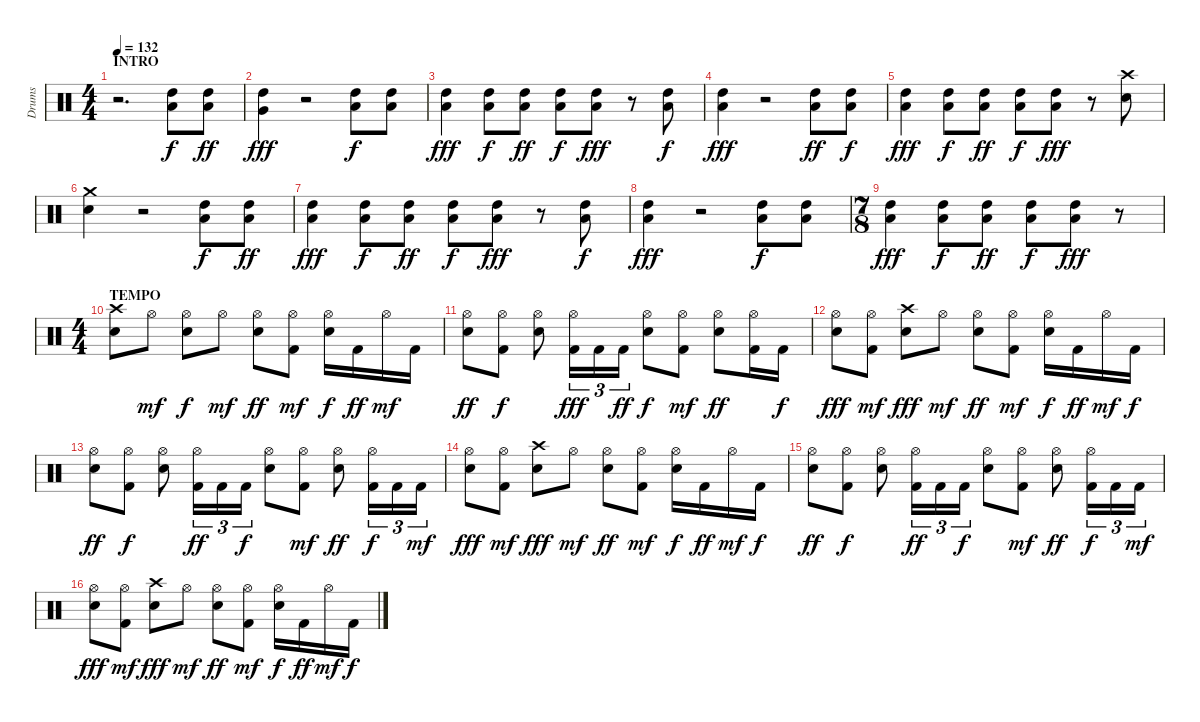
\track ("Drums" "Drums") {instrument percussion}
\staff {score}
\articulation defaults
\ts (4 4)
\section ("" "INTRO")
\tempo 132
\clef neutral
\ks c
r.2{d dy f} ("High Tom (hit)" "Low Floor Tom (hit)").8 ("High Tom (hit)" "Low Floor Tom (hit)").8{dy ff} |
("High Tom (hit)" "Very Low Tom (hit)").4{dy fff} r.2 ("High Tom (hit)" "Low Floor Tom (hit)").8{dy f} ("High Tom (hit)" "Low Floor Tom (hit)").8 |
("High Tom (hit)" "Low Floor Tom (hit)").4{dy fff} ("High Tom (hit)" "Low Floor Tom (hit)").8{dy f} ("High Tom (hit)" "Low Floor Tom (hit)").8{dy ff} ("High Tom (hit)" "Low Floor Tom (hit)").8{dy f} ("High Tom (hit)" "Low Floor Tom (hit)").8{dy fff} r.8 ("High Tom (hit)" "Low Floor Tom (hit)").8{dy f} |
("High Tom (hit)" "Low Floor Tom (hit)").4{dy fff} r.2 ("High Tom (hit)" "Low Floor Tom (hit)").8{dy ff} ("High Tom (hit)" "Low Floor Tom (hit)").8{dy f} |
("High Tom (hit)" "Low Floor Tom (hit)").4{dy fff} ("High Tom (hit)" "Low Floor Tom (hit)").8{dy f} ("High Tom (hit)" "Low Floor Tom (hit)").8{dy ff} ("High Tom (hit)" "Low Floor Tom (hit)").8{dy f} ("High Tom (hit)" "Low Floor Tom (hit)").8{dy fff} r.8 ("Crash high (hit)" "Electric Snare (hit)").8 |
("Crash medium (hit)" "Electric Snare (hit)").4 r.2 ("High Tom (hit)" "Low Floor Tom (hit)").8{dy f} ("High Tom (hit)" "Low Floor Tom (hit)").8{dy ff} |
("High Tom (hit)" "Low Floor Tom (hit)").4{dy fff} ("High Tom (hit)" "Low Floor Tom (hit)").8{dy f} ("High Tom (hit)" "Low Floor Tom (hit)").8{dy ff} ("High Tom (hit)" "Low Floor Tom (hit)").8{dy f} ("High Tom (hit)" "Low Floor Tom (hit)").8{dy fff} r.8 ("High Tom (hit)" "Low Floor Tom (hit)").8{dy f} |
("High Tom (hit)" "Low Floor Tom (hit)").4{dy fff} r.2 ("High Tom (hit)" "Low Floor Tom (hit)").8{dy f} ("High Tom (hit)" "Low Floor Tom (hit)").8 |
\ts (7 8)
("High Tom (hit)" "Low Floor Tom (hit)").4{dy fff} ("High Tom (hit)" "Low Floor Tom (hit)").8{dy f} ("High Tom (hit)" "Low Floor Tom (hit)").8{dy ff} ("High Tom (hit)" "Low Floor Tom (hit)").8{dy f} ("High Tom (hit)" "Low Floor Tom (hit)").8{dy fff} r.8 |
\ts (4 4)
\section ("" "TEMPO")
("Crash high (hit)" "Electric Snare (hit)").8 "Hi-Hat (open)".8{dy mf} ("Hi-Hat (open)" "Electric Snare (hit)").8{dy f} "Hi-Hat (open)".8{dy mf} ("Hi-Hat (open)" "Electric Snare (hit)").8{dy ff} ("Hi-Hat (open)" "Kick (hit) 2").8{dy mf} ("Hi-Hat (open)" "Electric Snare (hit)").16{dy f} "Kick (hit) 2".16{dy ff} "Hi-Hat (open)".16{dy mf} "Kick (hit) 2".16 |
("Hi-Hat (open)" "Electric Snare (hit)").8{dy ff} ("Hi-Hat (open)" "Kick (hit) 2").8{dy f} ("Hi-Hat (open)" "Electric Snare (hit)").8 ("Hi-Hat (open)" "Kick (hit) 2").16{tu (3 2) dy fff} "Kick (hit) 2".16{tu (3 2)} "Kick (hit) 2".16{tu (3 2) dy ff} ("Hi-Hat (open)" "Electric Snare (hit)").8{dy f} ("Hi-Hat (open)" "Kick (hit) 2").8{dy mf} ("Hi-Hat (open)" "Electric Snare (hit)").8{dy ff} ("Hi-Hat (open)" "Kick (hit) 2").16 "Kick (hit) 2".16{dy f} |
("Hi-Hat (open)" "Electric Snare (hit)").8{dy fff} ("Hi-Hat (open)" "Kick (hit) 2").8{dy mf} ("Crash high (hit)" "Electric Snare (hit)").8{dy fff} "Hi-Hat (open)".8{dy mf} ("Hi-Hat (open)" "Electric Snare (hit)").8{dy ff} ("Hi-Hat (open)" "Kick (hit) 2").8{dy mf} ("Hi-Hat (open)" "Electric Snare (hit)").16{dy f} "Kick (hit) 2".16{dy ff} "Hi-Hat (open)".16{dy mf} "Kick (hit) 2".16{dy f} |
("Hi-Hat (open)" "Electric Snare (hit)").8{dy ff} ("Hi-Hat (open)" "Kick (hit) 2").8{dy f} ("Hi-Hat (open)" "Electric Snare (hit)").8 ("Hi-Hat (open)" "Kick (hit) 2").16{tu (3 2) dy ff} "Kick (hit) 2".16{tu (3 2)} "Kick (hit) 2".16{tu (3 2) dy f} ("Hi-Hat (open)" "Electric Snare (hit)").8 ("Hi-Hat (open)" "Kick (hit) 2").8{dy mf} ("Hi-Hat (open)" "Electric Snare (hit)").8{dy ff} ("Hi-Hat (open)" "Kick (hit) 2").16{tu (3 2) dy f} "Kick (hit) 2".16{tu (3 2)} "Kick (hit) 2".16{tu (3 2) dy mf} |
("Hi-Hat (open)" "Electric Snare (hit)").8{dy fff} ("Hi-Hat (open)" "Kick (hit) 2").8{dy mf} ("Crash high (hit)" "Electric Snare (hit)").8{dy fff} "Hi-Hat (open)".8{dy mf} ("Hi-Hat (open)" "Electric Snare (hit)").8{dy ff} ("Hi-Hat (open)" "Kick (hit) 2").8{dy mf} ("Hi-Hat (open)" "Electric Snare (hit)").16{dy f} "Kick (hit) 2".16{dy ff} "Hi-Hat (open)".16{dy mf} "Kick (hit) 2".16{dy f} |
("Hi-Hat (open)" "Electric Snare (hit)").8{dy ff} ("Hi-Hat (open)" "Kick (hit) 2").8{dy f} ("Hi-Hat (open)" "Electric Snare (hit)").8 ("Hi-Hat (open)" "Kick (hit) 2").16{tu (3 2) dy ff} "Kick (hit) 2".16{tu (3 2)} "Kick (hit) 2".16{tu (3 2) dy f} ("Hi-Hat (open)" "Electric Snare (hit)").8 ("Hi-Hat (open)" "Kick (hit) 2").8{dy mf} ("Hi-Hat (open)" "Electric Snare (hit)").8{dy ff} ("Hi-Hat (open)" "Kick (hit) 2").16{tu (3 2) dy f} "Kick (hit) 2".16{tu (3 2)} "Kick (hit) 2".16{tu (3 2) dy mf} |
("Hi-Hat (open)" "Electric Snare (hit)").8{dy fff} ("Hi-Hat (open)" "Kick (hit) 2").8{dy mf} ("Crash high (hit)" "Electric Snare (hit)").8{dy fff} "Hi-Hat (open)".8{dy mf} ("Hi-Hat (open)" "Electric Snare (hit)").8{dy ff} ("Hi-Hat (open)" "Kick (hit) 2").8{dy mf} ("Hi-Hat (open)" "Electric Snare (hit)").16{dy f} "Kick (hit) 2".16{dy ff} "Hi-Hat (open)".16{dy mf} "Kick (hit) 2".16{dy f}
